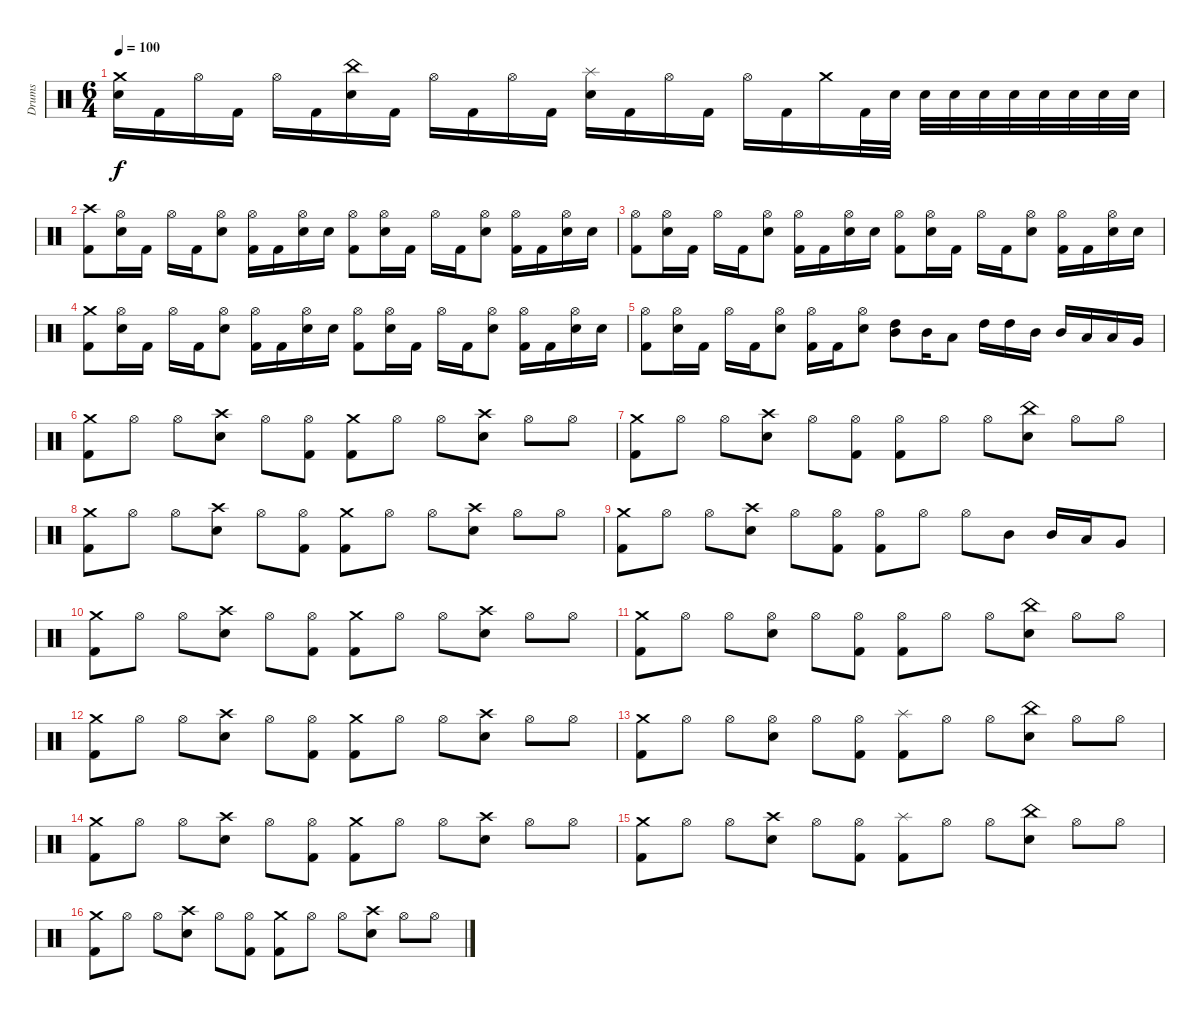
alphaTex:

\track ("Drums" "Drums") {instrument percussion}
\staff {score}
\articulation defaults
\ts (6 4)
\tempo 100
\clef neutral
\ks c
("Crash medium (hit)" "Electric Snare (hit)").16{dy f} "Kick (hit) 2".16 "Hi-Hat (open)".16 "Kick (hit) 2".16 "Hi-Hat (open)".16 "Kick (hit) 2".16 ("China (hit)" "Electric Snare (hit)").16 "Kick (hit) 2".16 "Hi-Hat (open)".16 "Kick (hit) 2".16 "Hi-Hat (open)".16 "Kick (hit) 2".16 ("Splash (hit)" "Electric Snare (hit)").16 "Kick (hit) 2".16 "Hi-Hat (open)".16 "Kick (hit) 2".16 "Hi-Hat (open)".16 "Kick (hit) 2".16 "Crash medium (hit)".16 "Kick (hit) 2".32 "Electric Snare (hit)".32 "Electric Snare (hit)".32 "Electric Snare (hit)".32 "Electric Snare (hit)".32 "Electric Snare (hit)".32 "Electric Snare (hit)".32 "Electric Snare (hit)".32 "Electric Snare (hit)".32 "Electric Snare (hit)".32 |
("Crash high (hit)" "Kick (hit) 2").8 ("Hi-Hat (open)" "Electric Snare (hit)").16 "Kick (hit) 2".16 "Hi-Hat (open)".16 "Kick (hit) 2".16 ("Hi-Hat (open)" "Electric Snare (hit)").8 ("Hi-Hat (open)" "Kick (hit) 2").16 "Kick (hit) 2".16 ("Hi-Hat (open)" "Electric Snare (hit)").16 "Electric Snare (hit)".16 ("Hi-Hat (open)" "Kick (hit) 2").8 ("Hi-Hat (open)" "Electric Snare (hit)").16 "Kick (hit) 2".16 "Hi-Hat (open)".16 "Kick (hit) 2".16 ("Hi-Hat (open)" "Electric Snare (hit)").8 ("Hi-Hat (open)" "Kick (hit) 2").16 "Kick (hit) 2".16 ("Hi-Hat (open)" "Electric Snare (hit)").16 "Electric Snare (hit)".16 |
("Hi-Hat (open)" "Kick (hit) 2").8 ("Hi-Hat (open)" "Electric Snare (hit)").16 "Kick (hit) 2".16 "Hi-Hat (open)".16 "Kick (hit) 2".16 ("Hi-Hat (open)" "Electric Snare (hit)").8 ("Hi-Hat (open)" "Kick (hit) 2").16 "Kick (hit) 2".16 ("Hi-Hat (open)" "Electric Snare (hit)").16 "Electric Snare (hit)".16 ("Hi-Hat (open)" "Kick (hit) 2").8 ("Hi-Hat (open)" "Electric Snare (hit)").16 "Kick (hit) 2".16 "Hi-Hat (open)".16 "Kick (hit) 2".16 ("Hi-Hat (open)" "Electric Snare (hit)").8 ("Hi-Hat (open)" "Kick (hit) 2").16 "Kick (hit) 2".16 ("Hi-Hat (open)" "Electric Snare (hit)").16 "Electric Snare (hit)".16 |
("Crash medium (hit)" "Kick (hit) 2").8 ("Hi-Hat (open)" "Electric Snare (hit)").16 "Kick (hit) 2".16 "Hi-Hat (open)".16 "Kick (hit) 2".16 ("Hi-Hat (open)" "Electric Snare (hit)").8 ("Hi-Hat (open)" "Kick (hit) 2").16 "Kick (hit) 2".16 ("Hi-Hat (open)" "Electric Snare (hit)").16 "Electric Snare (hit)".16 ("Hi-Hat (open)" "Kick (hit) 2").8 ("Hi-Hat (open)" "Electric Snare (hit)").16 "Kick (hit) 2".16 "Hi-Hat (open)".16 "Kick (hit) 2".16 ("Hi-Hat (open)" "Electric Snare (hit)").8 ("Hi-Hat (open)" "Kick (hit) 2").16 "Kick (hit) 2".16 ("Hi-Hat (open)" "Electric Snare (hit)").16 "Electric Snare (hit)".16 |
("Hi-Hat (open)" "Kick (hit) 2").8 ("Hi-Hat (open)" "Electric Snare (hit)").16 "Kick (hit) 2".16 "Hi-Hat (open)".16 "Kick (hit) 2".16 ("Hi-Hat (open)" "Electric Snare (hit)").8 ("Hi-Hat (open)" "Kick (hit) 2").16 "Kick (hit) 2".16 ("Hi-Hat (open)" "Electric Snare (hit)").8 ("High Tom (hit)" "Mid Tom (hit)").8 "Mid Tom (hit)".16 "Low Tom (hit)".8 "High Tom (hit)".16 "High Tom (hit)".16 "Mid Tom (hit)".16 "Mid Tom (hit)".16 "Low Tom (hit)".16 "Low Tom (hit)".16 "Very Low Tom (hit)".16 |
("Crash medium (hit)" "Kick (hit) 2").8 "Hi-Hat (open)".8 "Hi-Hat (open)".8 ("Crash high (hit)" "Electric Snare (hit)").8 "Hi-Hat (open)".8 ("Hi-Hat (open)" "Kick (hit) 2").8 ("Crash medium (hit)" "Kick (hit) 2").8 "Hi-Hat (open)".8 "Hi-Hat (open)".8 ("Crash high (hit)" "Electric Snare (hit)").8 "Hi-Hat (open)".8 "Hi-Hat (open)".8 |
("Crash medium (hit)" "Kick (hit) 2").8 "Hi-Hat (open)".8 "Hi-Hat (open)".8 ("Crash high (hit)" "Electric Snare (hit)").8 "Hi-Hat (open)".8 ("Hi-Hat (open)" "Kick (hit) 2").8 ("Hi-Hat (open)" "Kick (hit) 2").8 "Hi-Hat (open)".8 "Hi-Hat (open)".8 ("China (hit)" "Electric Snare (hit)").8 "Hi-Hat (open)".8 "Hi-Hat (open)".8 |
("Crash medium (hit)" "Kick (hit) 2").8 "Hi-Hat (open)".8 "Hi-Hat (open)".8 ("Crash high (hit)" "Electric Snare (hit)").8 "Hi-Hat (open)".8 ("Hi-Hat (open)" "Kick (hit) 2").8 ("Crash medium (hit)" "Kick (hit) 2").8 "Hi-Hat (open)".8 "Hi-Hat (open)".8 ("Crash high (hit)" "Electric Snare (hit)").8 "Hi-Hat (open)".8 "Hi-Hat (open)".8 |
("Crash medium (hit)" "Kick (hit) 2").8 "Hi-Hat (open)".8 "Hi-Hat (open)".8 ("Crash high (hit)" "Electric Snare (hit)").8 "Hi-Hat (open)".8 ("Hi-Hat (open)" "Kick (hit) 2").8 ("Hi-Hat (open)" "Kick (hit) 2").8 "Hi-Hat (open)".8 "Hi-Hat (open)".8 "Mid Tom (hit)".8 "Mid Tom (hit)".16 "Low Tom (hit)".16 "Very Low Tom (hit)".8 |
("Crash medium (hit)" "Kick (hit) 2").8 "Hi-Hat (open)".8 "Hi-Hat (open)".8 ("Crash high (hit)" "Electric Snare (hit)").8 "Hi-Hat (open)".8 ("Hi-Hat (open)" "Kick (hit) 2").8 ("Crash medium (hit)" "Kick (hit) 2").8 "Hi-Hat (open)".8 "Hi-Hat (open)".8 ("Crash high (hit)" "Electric Snare (hit)").8 "Hi-Hat (open)".8 "Hi-Hat (open)".8 |
("Crash medium (hit)" "Kick (hit) 2").8 "Hi-Hat (open)".8 "Hi-Hat (open)".8 ("Hi-Hat (open)" "Electric Snare (hit)").8 "Hi-Hat (open)".8 ("Hi-Hat (open)" "Kick (hit) 2").8 ("Hi-Hat (open)" "Kick (hit) 2").8 "Hi-Hat (open)".8 "Hi-Hat (open)".8 ("China (hit)" "Electric Snare (hit)").8 "Hi-Hat (open)".8 "Hi-Hat (open)".8 |
("Crash medium (hit)" "Kick (hit) 2").8 "Hi-Hat (open)".8 "Hi-Hat (open)".8 ("Crash high (hit)" "Electric Snare (hit)").8 "Hi-Hat (open)".8 ("Hi-Hat (open)" "Kick (hit) 2").8 ("Crash medium (hit)" "Kick (hit) 2").8 "Hi-Hat (open)".8 "Hi-Hat (open)".8 ("Crash high (hit)" "Electric Snare (hit)").8 "Hi-Hat (open)".8 "Hi-Hat (open)".8 |
("Crash medium (hit)" "Kick (hit) 2").8 "Hi-Hat (open)".8 "Hi-Hat (open)".8 ("Hi-Hat (open)" "Electric Snare (hit)").8 "Hi-Hat (open)".8 ("Hi-Hat (open)" "Kick (hit) 2").8 ("Splash (hit)" "Kick (hit) 2").8 "Hi-Hat (open)".8 "Hi-Hat (open)".8 ("China (hit)" "Electric Snare (hit)").8 "Hi-Hat (open)".8 "Hi-Hat (open)".8 |
("Crash medium (hit)" "Kick (hit) 2").8 "Hi-Hat (open)".8 "Hi-Hat (open)".8 ("Crash high (hit)" "Electric Snare (hit)").8 "Hi-Hat (open)".8 ("Hi-Hat (open)" "Kick (hit) 2").8 ("Crash medium (hit)" "Kick (hit) 2").8 "Hi-Hat (open)".8 "Hi-Hat (open)".8 ("Crash high (hit)" "Electric Snare (hit)").8 "Hi-Hat (open)".8 "Hi-Hat (open)".8 |
("Crash medium (hit)" "Kick (hit) 2").8 "Hi-Hat (open)".8 "Hi-Hat (open)".8 ("Crash high (hit)" "Electric Snare (hit)").8 "Hi-Hat (open)".8 ("Hi-Hat (open)" "Kick (hit) 2").8 ("Splash (hit)" "Kick (hit) 2").8 "Hi-Hat (open)".8 "Hi-Hat (open)".8 ("China (hit)" "Electric Snare (hit)").8 "Hi-Hat (open)".8 "Hi-Hat (open)".8 |
("Crash medium (hit)" "Kick (hit) 2").8 "Hi-Hat (open)".8 "Hi-Hat (open)".8 ("Crash high (hit)" "Electric Snare (hit)").8 "Hi-Hat (open)".8 ("Hi-Hat (open)" "Kick (hit) 2").8 ("Crash medium (hit)" "Kick (hit) 2").8 "Hi-Hat (open)".8 "Hi-Hat (open)".8 ("Crash high (hit)" "Electric Snare (hit)").8 "Hi-Hat (open)".8 "Hi-Hat (open)".8
